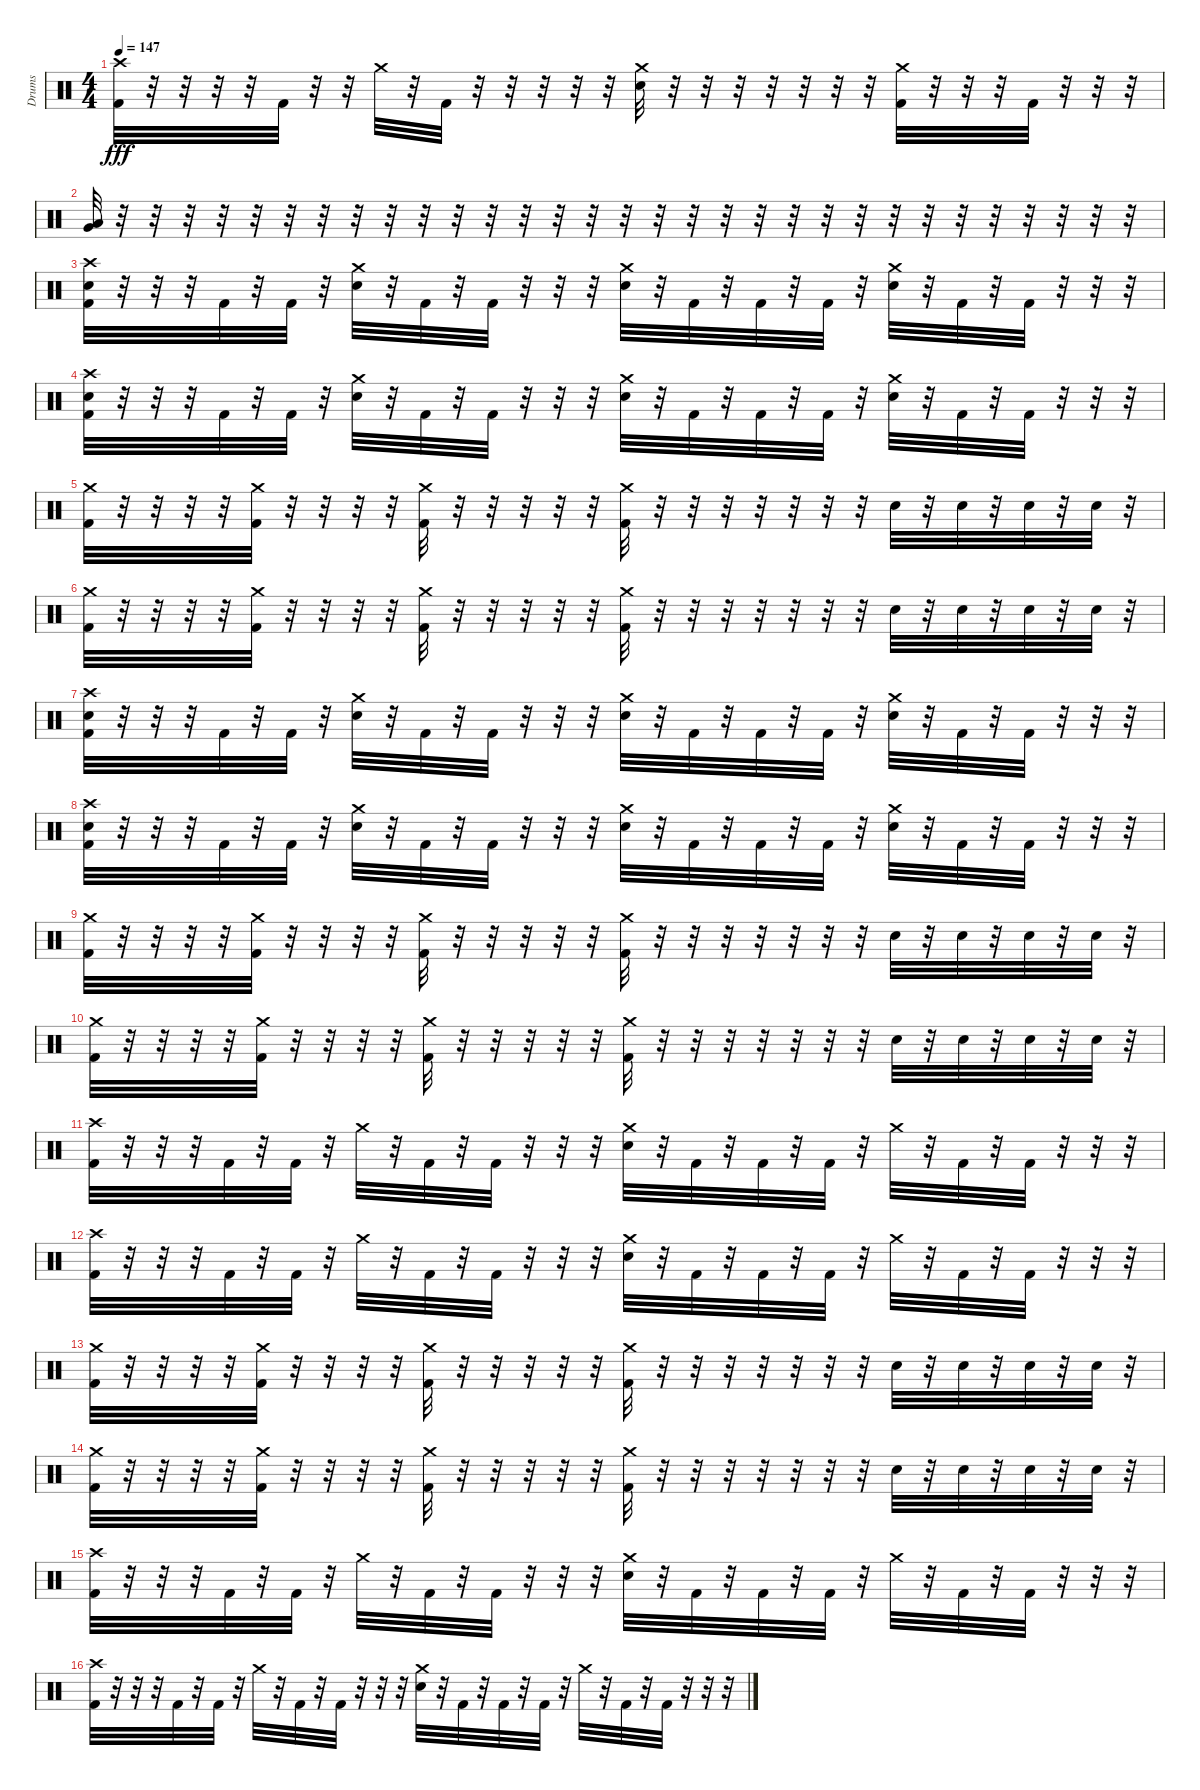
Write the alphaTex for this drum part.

\track ("Drums" "Drums") {instrument percussion}
\staff {score}
\articulation defaults
\ts (4 4)
\tempo 147
\clef neutral
\ks c
("Crash high (hit)" "Kick (hit) 2").32{dy fff} r.32 r.32 r.32 r.32 "Kick (hit) 2".32 r.32 r.32 "Crash medium (hit)".32 r.32 "Kick (hit) 2".32 r.32 r.32 r.32 r.32 r.32 ("Crash medium (hit)" "Electric Snare (hit)").32 r.32 r.32 r.32 r.32 r.32 r.32 r.32 ("Crash medium (hit)" "Kick (hit) 2").32 r.32 r.32 r.32 "Kick (hit) 2".32 r.32 r.32 r.32 |
("Low Floor Tom (hit)" "Very Low Tom (hit)").32 r.32 r.32 r.32 r.32 r.32 r.32 r.32 r.32 r.32 r.32 r.32 r.32 r.32 r.32 r.32 r.32 r.32 r.32 r.32 r.32 r.32 r.32 r.32 r.32 r.32 r.32 r.32 r.32 r.32 r.32 r.32 |
("Crash high (hit)" "Electric Snare (hit)" "Kick (hit) 2").32 r.32 r.32 r.32 "Kick (hit) 2".32 r.32 "Kick (hit) 2".32 r.32 ("Crash medium (hit)" "Electric Snare (hit)").32 r.32 "Kick (hit) 2".32 r.32 "Kick (hit) 2".32 r.32 r.32 r.32 ("Crash medium (hit)" "Electric Snare (hit)").32 r.32 "Kick (hit) 2".32 r.32 "Kick (hit) 2".32 r.32 "Kick (hit) 2".32 r.32 ("Crash medium (hit)" "Electric Snare (hit)").32 r.32 "Kick (hit) 2".32 r.32 "Kick (hit) 2".32 r.32 r.32 r.32 |
("Crash high (hit)" "Electric Snare (hit)" "Kick (hit) 2").32 r.32 r.32 r.32 "Kick (hit) 2".32 r.32 "Kick (hit) 2".32 r.32 ("Crash medium (hit)" "Electric Snare (hit)").32 r.32 "Kick (hit) 2".32 r.32 "Kick (hit) 2".32 r.32 r.32 r.32 ("Crash medium (hit)" "Electric Snare (hit)").32 r.32 "Kick (hit) 2".32 r.32 "Kick (hit) 2".32 r.32 "Kick (hit) 2".32 r.32 ("Crash medium (hit)" "Electric Snare (hit)").32 r.32 "Kick (hit) 2".32 r.32 "Kick (hit) 2".32 r.32 r.32 r.32 |
("Crash medium (hit)" "Kick (hit) 2").32 r.32 r.32 r.32 r.32 ("Crash medium (hit)" "Kick (hit) 2").32 r.32 r.32 r.32 r.32 ("Crash medium (hit)" "Kick (hit) 2").32 r.32 r.32 r.32 r.32 r.32 ("Crash medium (hit)" "Kick (hit) 2").32 r.32 r.32 r.32 r.32 r.32 r.32 r.32 "Electric Snare (hit)".32 r.32 "Electric Snare (hit)".32 r.32 "Electric Snare (hit)".32 r.32 "Electric Snare (hit)".32 r.32 |
("Crash medium (hit)" "Kick (hit) 2").32 r.32 r.32 r.32 r.32 ("Crash medium (hit)" "Kick (hit) 2").32 r.32 r.32 r.32 r.32 ("Crash medium (hit)" "Kick (hit) 2").32 r.32 r.32 r.32 r.32 r.32 ("Crash medium (hit)" "Kick (hit) 2").32 r.32 r.32 r.32 r.32 r.32 r.32 r.32 "Electric Snare (hit)".32 r.32 "Electric Snare (hit)".32 r.32 "Electric Snare (hit)".32 r.32 "Electric Snare (hit)".32 r.32 |
("Crash high (hit)" "Electric Snare (hit)" "Kick (hit) 2").32 r.32 r.32 r.32 "Kick (hit) 2".32 r.32 "Kick (hit) 2".32 r.32 ("Crash medium (hit)" "Electric Snare (hit)").32 r.32 "Kick (hit) 2".32 r.32 "Kick (hit) 2".32 r.32 r.32 r.32 ("Crash medium (hit)" "Electric Snare (hit)").32 r.32 "Kick (hit) 2".32 r.32 "Kick (hit) 2".32 r.32 "Kick (hit) 2".32 r.32 ("Crash medium (hit)" "Electric Snare (hit)").32 r.32 "Kick (hit) 2".32 r.32 "Kick (hit) 2".32 r.32 r.32 r.32 |
("Crash high (hit)" "Electric Snare (hit)" "Kick (hit) 2").32 r.32 r.32 r.32 "Kick (hit) 2".32 r.32 "Kick (hit) 2".32 r.32 ("Crash medium (hit)" "Electric Snare (hit)").32 r.32 "Kick (hit) 2".32 r.32 "Kick (hit) 2".32 r.32 r.32 r.32 ("Crash medium (hit)" "Electric Snare (hit)").32 r.32 "Kick (hit) 2".32 r.32 "Kick (hit) 2".32 r.32 "Kick (hit) 2".32 r.32 ("Crash medium (hit)" "Electric Snare (hit)").32 r.32 "Kick (hit) 2".32 r.32 "Kick (hit) 2".32 r.32 r.32 r.32 |
("Crash medium (hit)" "Kick (hit) 2").32 r.32 r.32 r.32 r.32 ("Crash medium (hit)" "Kick (hit) 2").32 r.32 r.32 r.32 r.32 ("Crash medium (hit)" "Kick (hit) 2").32 r.32 r.32 r.32 r.32 r.32 ("Crash medium (hit)" "Kick (hit) 2").32 r.32 r.32 r.32 r.32 r.32 r.32 r.32 "Electric Snare (hit)".32 r.32 "Electric Snare (hit)".32 r.32 "Electric Snare (hit)".32 r.32 "Electric Snare (hit)".32 r.32 |
("Crash medium (hit)" "Kick (hit) 2").32 r.32 r.32 r.32 r.32 ("Crash medium (hit)" "Kick (hit) 2").32 r.32 r.32 r.32 r.32 ("Crash medium (hit)" "Kick (hit) 2").32 r.32 r.32 r.32 r.32 r.32 ("Crash medium (hit)" "Kick (hit) 2").32 r.32 r.32 r.32 r.32 r.32 r.32 r.32 "Electric Snare (hit)".32 r.32 "Electric Snare (hit)".32 r.32 "Electric Snare (hit)".32 r.32 "Electric Snare (hit)".32 r.32 |
("Crash high (hit)" "Kick (hit) 2").32 r.32 r.32 r.32 "Kick (hit) 2".32 r.32 "Kick (hit) 2".32 r.32 "Crash medium (hit)".32 r.32 "Kick (hit) 2".32 r.32 "Kick (hit) 2".32 r.32 r.32 r.32 ("Crash medium (hit)" "Electric Snare (hit)").32 r.32 "Kick (hit) 2".32 r.32 "Kick (hit) 2".32 r.32 "Kick (hit) 2".32 r.32 "Crash medium (hit)".32 r.32 "Kick (hit) 2".32 r.32 "Kick (hit) 2".32 r.32 r.32 r.32 |
("Crash high (hit)" "Kick (hit) 2").32 r.32 r.32 r.32 "Kick (hit) 2".32 r.32 "Kick (hit) 2".32 r.32 "Crash medium (hit)".32 r.32 "Kick (hit) 2".32 r.32 "Kick (hit) 2".32 r.32 r.32 r.32 ("Crash medium (hit)" "Electric Snare (hit)").32 r.32 "Kick (hit) 2".32 r.32 "Kick (hit) 2".32 r.32 "Kick (hit) 2".32 r.32 "Crash medium (hit)".32 r.32 "Kick (hit) 2".32 r.32 "Kick (hit) 2".32 r.32 r.32 r.32 |
("Crash medium (hit)" "Kick (hit) 2").32 r.32 r.32 r.32 r.32 ("Crash medium (hit)" "Kick (hit) 2").32 r.32 r.32 r.32 r.32 ("Crash medium (hit)" "Kick (hit) 2").32 r.32 r.32 r.32 r.32 r.32 ("Crash medium (hit)" "Kick (hit) 2").32 r.32 r.32 r.32 r.32 r.32 r.32 r.32 "Electric Snare (hit)".32 r.32 "Electric Snare (hit)".32 r.32 "Electric Snare (hit)".32 r.32 "Electric Snare (hit)".32 r.32 |
("Crash medium (hit)" "Kick (hit) 2").32 r.32 r.32 r.32 r.32 ("Crash medium (hit)" "Kick (hit) 2").32 r.32 r.32 r.32 r.32 ("Crash medium (hit)" "Kick (hit) 2").32 r.32 r.32 r.32 r.32 r.32 ("Crash medium (hit)" "Kick (hit) 2").32 r.32 r.32 r.32 r.32 r.32 r.32 r.32 "Electric Snare (hit)".32 r.32 "Electric Snare (hit)".32 r.32 "Electric Snare (hit)".32 r.32 "Electric Snare (hit)".32 r.32 |
("Crash high (hit)" "Kick (hit) 2").32 r.32 r.32 r.32 "Kick (hit) 2".32 r.32 "Kick (hit) 2".32 r.32 "Crash medium (hit)".32 r.32 "Kick (hit) 2".32 r.32 "Kick (hit) 2".32 r.32 r.32 r.32 ("Crash medium (hit)" "Electric Snare (hit)").32 r.32 "Kick (hit) 2".32 r.32 "Kick (hit) 2".32 r.32 "Kick (hit) 2".32 r.32 "Crash medium (hit)".32 r.32 "Kick (hit) 2".32 r.32 "Kick (hit) 2".32 r.32 r.32 r.32 |
("Crash high (hit)" "Kick (hit) 2").32 r.32 r.32 r.32 "Kick (hit) 2".32 r.32 "Kick (hit) 2".32 r.32 "Crash medium (hit)".32 r.32 "Kick (hit) 2".32 r.32 "Kick (hit) 2".32 r.32 r.32 r.32 ("Crash medium (hit)" "Electric Snare (hit)").32 r.32 "Kick (hit) 2".32 r.32 "Kick (hit) 2".32 r.32 "Kick (hit) 2".32 r.32 "Crash medium (hit)".32 r.32 "Kick (hit) 2".32 r.32 "Kick (hit) 2".32 r.32 r.32 r.32
